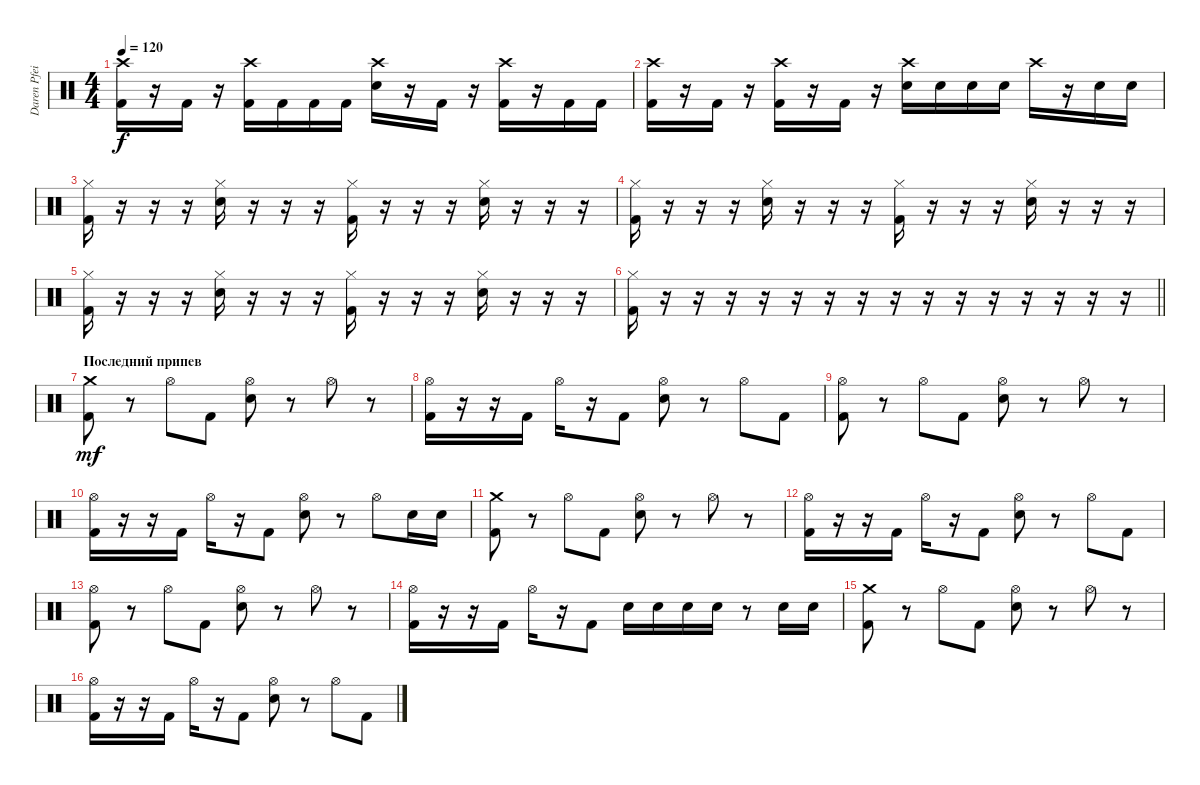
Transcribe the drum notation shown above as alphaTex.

\track ("Daren Pfeifer" "Daren Pfei") {instrument percussion}
\staff {score}
\articulation defaults
\ts (4 4)
\tempo 120
\clef neutral
\ks c
("Crash high (hit)" "Kick (hit) 2").16{dy f} r.16 "Kick (hit) 2".16 r.16 ("Crash high (hit)" "Kick (hit) 2").16 "Kick (hit) 2".16 "Kick (hit) 2".16 "Kick (hit) 2".16 ("Crash high (hit)" "Snare (hit) 2").16 r.16 "Kick (hit) 2".16 r.16 ("Crash high (hit)" "Kick (hit) 2").16 r.16 "Kick (hit) 2".16 "Kick (hit) 2".16 |
("Crash high (hit)" "Kick (hit) 2").16 r.16 "Kick (hit) 2".16 r.16 ("Crash high (hit)" "Kick (hit) 2").16 r.16 "Kick (hit) 2".16 r.16 ("Crash high (hit)" "Snare (hit) 2").16 "Snare (hit) 2".16 "Snare (hit) 2".16 "Snare (hit) 2".16 "Crash high (hit)".16 r.16 "Snare (hit) 2".16 "Snare (hit) 2".16 |
("Hi-Hat (closed)" "Kick (hit) 2").16 r.16 r.16 r.16 ("Hi-Hat (closed)" "Snare (hit) 2").16 r.16 r.16 r.16 ("Hi-Hat (closed)" "Kick (hit) 2").16 r.16 r.16 r.16 ("Hi-Hat (closed)" "Snare (hit) 2").16 r.16 r.16 r.16 |
("Hi-Hat (closed)" "Kick (hit) 2").16 r.16 r.16 r.16 ("Hi-Hat (closed)" "Snare (hit) 2").16 r.16 r.16 r.16 ("Hi-Hat (closed)" "Kick (hit) 2").16 r.16 r.16 r.16 ("Hi-Hat (closed)" "Snare (hit) 2").16 r.16 r.16 r.16 |
("Hi-Hat (closed)" "Kick (hit) 2").16 r.16 r.16 r.16 ("Hi-Hat (closed)" "Snare (hit) 2").16 r.16 r.16 r.16 ("Hi-Hat (closed)" "Kick (hit) 2").16 r.16 r.16 r.16 ("Hi-Hat (closed)" "Snare (hit) 2").16 r.16 r.16 r.16 |
\barLineRight lightlight
("Hi-Hat (closed)" "Kick (hit) 2").16 r.16 r.16 r.16 r.16 r.16 r.16 r.16 r.16 r.16 r.16 r.16 r.16 r.16 r.16 r.16 |
\section ("" "Последний припев")
("Crash medium (hit)" "Kick (hit) 2").8{dy mf} r.8 "Hi-Hat (open)".8 "Kick (hit) 2".8 ("Hi-Hat (open)" "Snare (hit) 2").8 r.8 "Hi-Hat (open)".8 r.8 |
("Hi-Hat (open)" "Kick (hit) 2").16 r.16 r.16 "Kick (hit) 2".16 "Hi-Hat (open)".16 r.16 "Kick (hit) 2".8 ("Hi-Hat (open)" "Snare (hit) 2").8 r.8 "Hi-Hat (open)".8 "Kick (hit) 2".8 |
("Hi-Hat (open)" "Kick (hit) 2").8 r.8 "Hi-Hat (open)".8 "Kick (hit) 2".8 ("Hi-Hat (open)" "Snare (hit) 2").8 r.8 "Hi-Hat (open)".8 r.8 |
("Hi-Hat (open)" "Kick (hit) 2").16 r.16 r.16 "Kick (hit) 2".16 "Hi-Hat (open)".16 r.16 "Kick (hit) 2".8 ("Hi-Hat (open)" "Snare (hit) 2").8 r.8 "Hi-Hat (open)".8 "Snare (hit) 2".16 "Snare (hit) 2".16 |
("Crash medium (hit)" "Kick (hit) 2").8 r.8 "Hi-Hat (open)".8 "Kick (hit) 2".8 ("Hi-Hat (open)" "Snare (hit) 2").8 r.8 "Hi-Hat (open)".8 r.8 |
("Hi-Hat (open)" "Kick (hit) 2").16 r.16 r.16 "Kick (hit) 2".16 "Hi-Hat (open)".16 r.16 "Kick (hit) 2".8 ("Hi-Hat (open)" "Snare (hit) 2").8 r.8 "Hi-Hat (open)".8 "Kick (hit) 2".8 |
("Hi-Hat (open)" "Kick (hit) 2").8 r.8 "Hi-Hat (open)".8 "Kick (hit) 2".8 ("Hi-Hat (open)" "Snare (hit) 2").8 r.8 "Hi-Hat (open)".8 r.8 |
("Hi-Hat (open)" "Kick (hit) 2").16 r.16 r.16 "Kick (hit) 2".16 "Hi-Hat (open)".16 r.16 "Kick (hit) 2".8 "Snare (hit) 2".16 "Snare (hit) 2".16 "Snare (hit) 2".16 "Snare (hit) 2".16 r.8 "Snare (hit) 2".16 "Snare (hit) 2".16 |
("Crash medium (hit)" "Kick (hit) 2").8 r.8 "Hi-Hat (open)".8 "Kick (hit) 2".8 ("Hi-Hat (open)" "Snare (hit) 2").8 r.8 "Hi-Hat (open)".8 r.8 |
("Hi-Hat (open)" "Kick (hit) 2").16 r.16 r.16 "Kick (hit) 2".16 "Hi-Hat (open)".16 r.16 "Kick (hit) 2".8 ("Hi-Hat (open)" "Snare (hit) 2").8 r.8 "Hi-Hat (open)".8 "Kick (hit) 2".8
